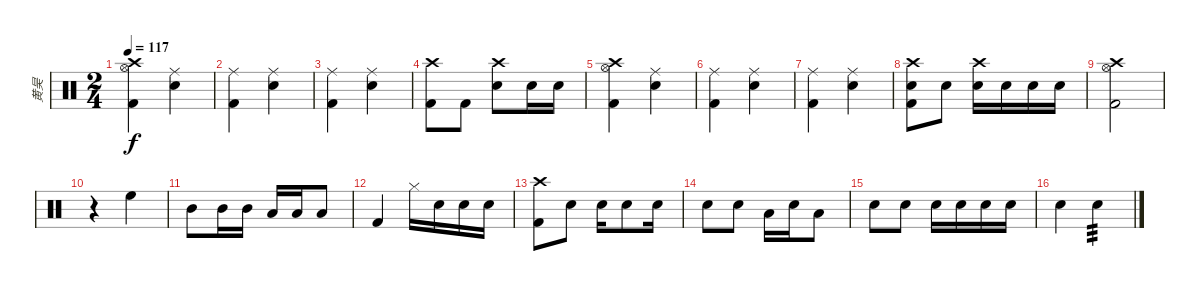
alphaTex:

\track ("黄昊" "黄昊") {instrument percussion}
\staff {score}
\articulation defaults
\ts (2 4)
\tempo 117
\clef neutral
\ks c
("Crash high (hit)" "Hi-Hat (open)" "Kick (hit) 2").4{dy f} ("Ride (middle)" "Snare (hit) 2").4 |
("Ride (middle)" "Kick (hit) 2").4 ("Ride (middle)" "Snare (hit) 2").4 |
("Ride (middle)" "Kick (hit) 2").4 ("Ride (middle)" "Snare (hit) 2").4 |
("Crash high (hit)" "Kick (hit) 2").8 "Kick (hit) 2".8 ("Crash high (hit)" "Snare (hit) 2").8 "Snare (hit) 2".16 "Snare (hit) 2".16 |
("Crash high (hit)" "Hi-Hat (open)" "Kick (hit) 2").4 ("Ride (middle)" "Snare (hit) 2").4 |
("Ride (middle)" "Kick (hit) 2").4 ("Ride (middle)" "Snare (hit) 2").4 |
("Ride (middle)" "Kick (hit) 2").4 ("Ride (middle)" "Snare (hit) 2").4 |
("Crash high (hit)" "Snare (hit) 2" "Kick (hit) 2").8 "Snare (hit) 2".8 ("Crash high (hit)" "Snare (hit) 2").16 "Snare (hit) 2".16 "Snare (hit) 2".16 "Snare (hit) 2".16 |
("Crash high (hit)" "Hi-Hat (open)" "Kick (hit) 2").2 |
r.4 "High Floor Tom (hit)".4 |
"Mid Tom (hit)".8 "Mid Tom (hit)".16 "Mid Tom (hit)".16 "Low Tom (hit)".16 "Low Tom (hit)".16 "Low Floor Tom (hit)".8 |
"Kick (hit) 2".4 "Hi-Hat (closed)".16 "Snare (hit) 2".16 "Snare (hit) 2".16 "Snare (hit) 2".16 |
("Crash high (hit)" "Kick (hit) 2").8 "Snare (hit) 2".8 "Snare (hit) 2".16 "Snare (hit) 2".8 "Snare (hit) 2".16 |
"Snare (hit) 2".8 "Snare (hit) 2".8 "Low Floor Tom (hit)".16 "Snare (hit) 2".16 "Low Floor Tom (hit)".8 |
"Snare (hit) 2".8 "Snare (hit) 2".8 "Snare (hit) 2".16 "Snare (hit) 2".16 "Snare (hit) 2".16 "Snare (hit) 2".16 |
"Snare (hit) 2".4 "Snare (hit) 2".4{tp 3 volume 9}
